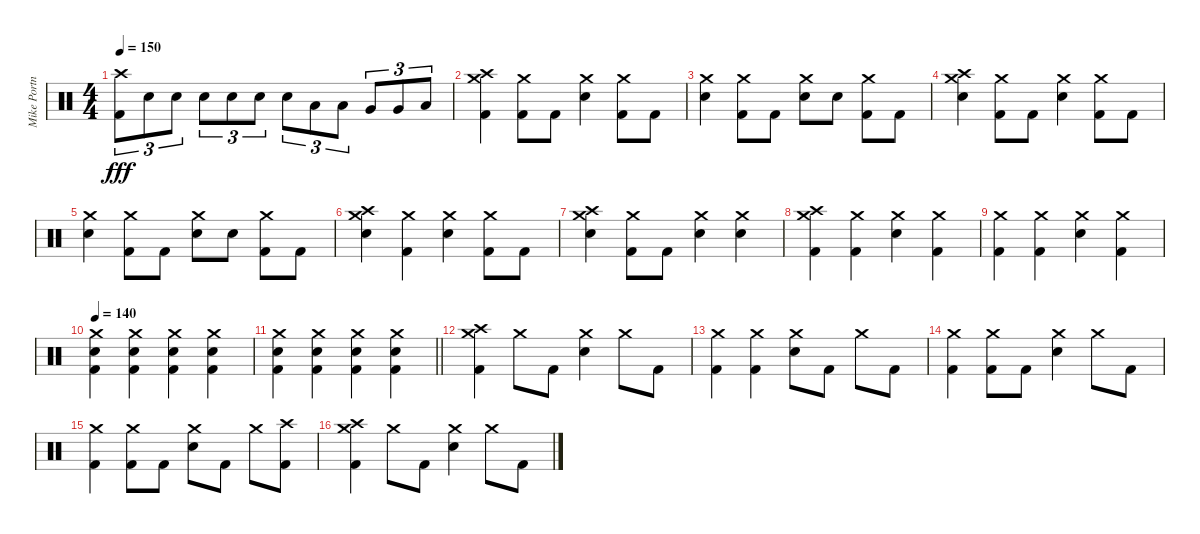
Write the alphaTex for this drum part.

\track ("Mike Portnoy" "Mike Portn") {instrument percussion}
\staff {score}
\articulation defaults
\ts (4 4)
\tempo 150
\clef neutral
\ks c
("Crash high (hit)" "Kick (hit) 2").8{tu (3 2) dy fff} "Electric Snare (hit)".8{tu (3 2)} "Electric Snare (hit)".8{tu (3 2)} "Electric Snare (hit)".8{tu (3 2)} "Electric Snare (hit)".8{tu (3 2)} "Electric Snare (hit)".8{tu (3 2)} "Electric Snare (hit)".8{tu (3 2)} "Low Tom (hit)".8{tu (3 2)} "Low Tom (hit)".8{tu (3 2)} "Very Low Tom (hit)".8{tu (3 2)} "Very Low Tom (hit)".8{tu (3 2)} "Low Floor Tom (hit)".8{tu (3 2)} |
("Crash high (hit)" "Crash medium (hit)" "Kick (hit) 2").4 ("Crash medium (hit)" "Kick (hit) 2").8 "Kick (hit) 2".8 ("Crash medium (hit)" "Electric Snare (hit)").4 ("Crash medium (hit)" "Kick (hit) 2").8 "Kick (hit) 2".8 |
("Crash medium (hit)" "Electric Snare (hit)").4 ("Crash medium (hit)" "Kick (hit) 2").8 "Kick (hit) 2".8 ("Crash medium (hit)" "Electric Snare (hit)").8 "Electric Snare (hit)".8 ("Crash medium (hit)" "Kick (hit) 2").8 "Kick (hit) 2".8 |
("Crash high (hit)" "Crash medium (hit)" "Electric Snare (hit)").4 ("Crash medium (hit)" "Kick (hit) 2").8 "Kick (hit) 2".8 ("Crash medium (hit)" "Electric Snare (hit)").4 ("Crash medium (hit)" "Kick (hit) 2").8 "Kick (hit) 2".8 |
("Crash medium (hit)" "Electric Snare (hit)").4 ("Crash medium (hit)" "Kick (hit) 2").8 "Kick (hit) 2".8 ("Crash medium (hit)" "Electric Snare (hit)").8 "Electric Snare (hit)".8 ("Crash medium (hit)" "Kick (hit) 2").8 "Kick (hit) 2".8 |
("Crash high (hit)" "Crash medium (hit)" "Electric Snare (hit)").4 ("Crash medium (hit)" "Kick (hit) 2").4 ("Crash medium (hit)" "Electric Snare (hit)").4 ("Crash medium (hit)" "Kick (hit) 2").8 "Kick (hit) 2".8 |
("Crash high (hit)" "Crash medium (hit)" "Electric Snare (hit)").4 ("Crash medium (hit)" "Kick (hit) 2").8 "Kick (hit) 2".8 ("Crash medium (hit)" "Electric Snare (hit)").4 ("Crash medium (hit)" "Electric Snare (hit)").4 |
("Crash medium (hit)" "Crash high (hit)" "Kick (hit) 2").4 ("Crash medium (hit)" "Kick (hit) 2").4 ("Crash medium (hit)" "Electric Snare (hit)").4 ("Crash medium (hit)" "Kick (hit) 2").4 |
("Crash medium (hit)" "Kick (hit) 2").4 ("Crash medium (hit)" "Kick (hit) 2").4 ("Crash medium (hit)" "Electric Snare (hit)").4 ("Crash medium (hit)" "Kick (hit) 2").4 |
\tempo 140
("Crash medium (hit)" "Kick (hit) 2" "Electric Snare (hit)").4 ("Crash medium (hit)" "Kick (hit) 2" "Electric Snare (hit)").4 ("Crash medium (hit)" "Kick (hit) 2" "Electric Snare (hit)").4 ("Crash medium (hit)" "Kick (hit) 2" "Electric Snare (hit)").4 |
\barLineRight lightlight
("Crash medium (hit)" "Kick (hit) 2" "Electric Snare (hit)").4 ("Crash medium (hit)" "Kick (hit) 2" "Electric Snare (hit)").4 ("Crash medium (hit)" "Kick (hit) 2" "Electric Snare (hit)").4 ("Crash medium (hit)" "Kick (hit) 2" "Electric Snare (hit)").4 |
("Crash high (hit)" "Crash medium (hit)" "Kick (hit) 2").4 "Crash medium (hit)".8 "Kick (hit) 2".8 ("Crash medium (hit)" "Electric Snare (hit)").4 "Crash medium (hit)".8 "Kick (hit) 2".8 |
("Crash medium (hit)" "Kick (hit) 2").4 ("Crash medium (hit)" "Kick (hit) 2").4 ("Crash medium (hit)" "Electric Snare (hit)").8 "Kick (hit) 2".8 "Crash medium (hit)".8 "Kick (hit) 2".8 |
("Crash medium (hit)" "Kick (hit) 2").4 ("Crash medium (hit)" "Kick (hit) 2").8 "Kick (hit) 2".8 ("Crash medium (hit)" "Electric Snare (hit)").4 "Crash medium (hit)".8 "Kick (hit) 2".8 |
("Crash medium (hit)" "Kick (hit) 2").4 ("Crash medium (hit)" "Kick (hit) 2").8 "Kick (hit) 2".8 ("Crash medium (hit)" "Electric Snare (hit)").8 "Kick (hit) 2".8 "Crash medium (hit)".8 ("Crash high (hit)" "Kick (hit) 2").8 |
("Crash high (hit)" "Crash medium (hit)" "Kick (hit) 2").4 "Crash medium (hit)".8 "Kick (hit) 2".8 ("Crash medium (hit)" "Electric Snare (hit)").4 "Crash medium (hit)".8 "Kick (hit) 2".8
